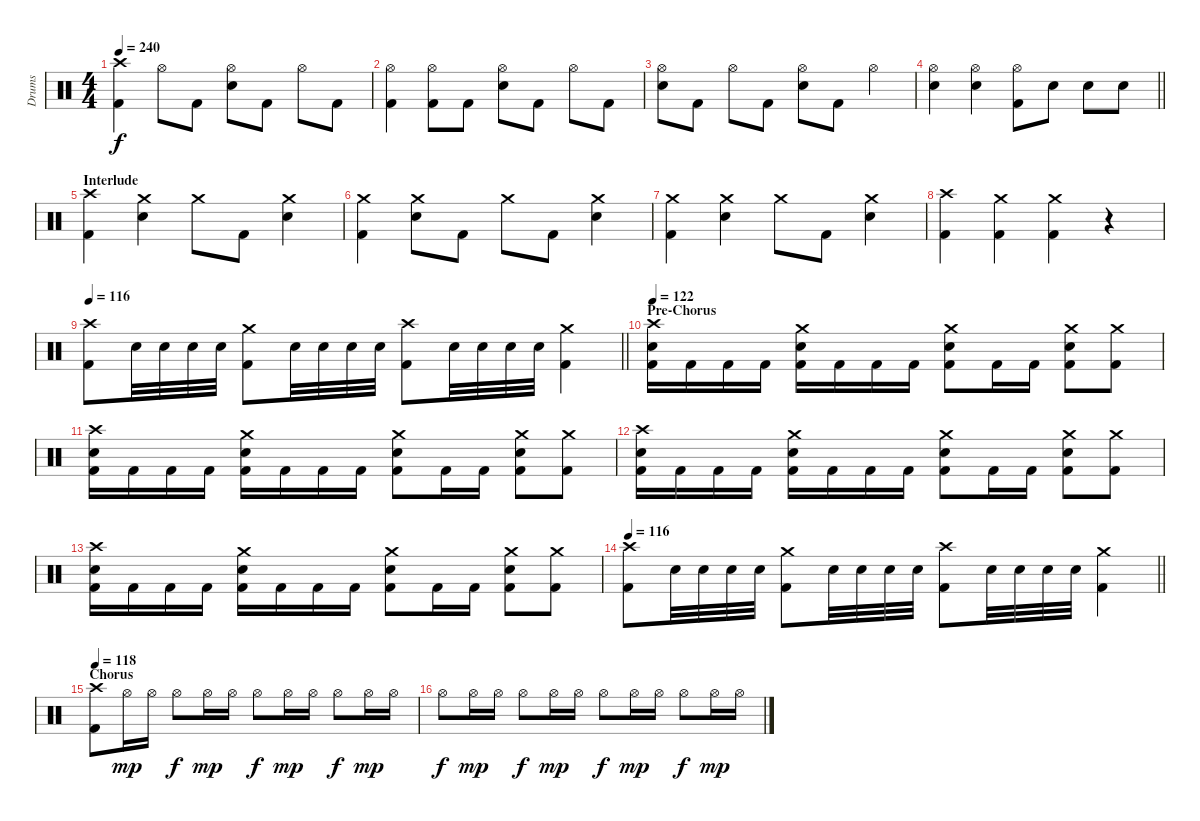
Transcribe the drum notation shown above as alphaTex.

\track ("Drums" "Drums") {instrument percussion}
\staff {score}
\articulation defaults
\ts (4 4)
\tempo 240
\clef neutral
\ks c
("Crash high (hit)" "Kick (hit) 2").4{dy f} "Hi-Hat (open)".8 "Kick (hit) 2".8 ("Hi-Hat (open)" "Snare (hit) 2").8 "Kick (hit) 2".8 "Hi-Hat (open)".8 "Kick (hit) 2".8 |
("Hi-Hat (open)" "Kick (hit) 2").4 ("Hi-Hat (open)" "Kick (hit) 2").8 "Kick (hit) 2".8 ("Hi-Hat (open)" "Snare (hit) 2").8 "Kick (hit) 2".8 "Hi-Hat (open)".8 "Kick (hit) 2".8 |
("Hi-Hat (open)" "Snare (hit) 2").8 "Kick (hit) 2".8 "Hi-Hat (open)".8 "Kick (hit) 2".8 ("Hi-Hat (open)" "Snare (hit) 2").8 "Kick (hit) 2".8 "Hi-Hat (open)".4 |
\barLineRight lightlight
("Hi-Hat (open)" "Snare (hit) 2").4 ("Hi-Hat (open)" "Snare (hit) 2").4 ("Hi-Hat (open)" "Kick (hit) 2").8 "Snare (hit) 2".8 "Snare (hit) 2".8 "Snare (hit) 2".8 |
\section ("" "Interlude")
("Crash high (hit)" "Kick (hit) 2").4 ("Crash medium (hit)" "Snare (hit) 2").4 "Crash medium (hit)".8 "Kick (hit) 2".8 ("Crash medium (hit)" "Snare (hit) 2").4 |
("Crash medium (hit)" "Kick (hit) 2").4 ("Crash medium (hit)" "Snare (hit) 2").8 "Kick (hit) 2".8 "Crash medium (hit)".8 "Kick (hit) 2".8 ("Crash medium (hit)" "Snare (hit) 2").4 |
("Crash medium (hit)" "Kick (hit) 2").4 ("Crash medium (hit)" "Snare (hit) 2").4 "Crash medium (hit)".8 "Kick (hit) 2".8 ("Crash medium (hit)" "Snare (hit) 2").4 |
("Crash high (hit)" "Kick (hit) 2").4 ("Crash medium (hit)" "Kick (hit) 2").4 ("Crash medium (hit)" "Kick (hit) 2").4 r.4 |
\tempo 116
\barLineRight lightlight
("Crash high (hit)" "Kick (hit) 2").8 "Snare (hit) 2".32 "Snare (hit) 2".32 "Snare (hit) 2".32 "Snare (hit) 2".32 ("Crash medium (hit)" "Kick (hit) 2").8 "Snare (hit) 2".32 "Snare (hit) 2".32 "Snare (hit) 2".32 "Snare (hit) 2".32 ("Crash high (hit)" "Kick (hit) 2").8 "Snare (hit) 2".32 "Snare (hit) 2".32 "Snare (hit) 2".32 "Snare (hit) 2".32 ("Crash medium (hit)" "Kick (hit) 2").4 |
\section ("" "Pre-Chorus")
\tempo 122
("Crash high (hit)" "Snare (hit) 2" "Kick (hit) 2").16 "Kick (hit) 2".16 "Kick (hit) 2".16 "Kick (hit) 2".16 ("Crash medium (hit)" "Snare (hit) 2" "Kick (hit) 2").16 "Kick (hit) 2".16 "Kick (hit) 2".16 "Kick (hit) 2".16 ("Crash medium (hit)" "Snare (hit) 2" "Kick (hit) 2").8 "Kick (hit) 2".16 "Kick (hit) 2".16 ("Crash medium (hit)" "Snare (hit) 2" "Kick (hit) 2").8 ("Crash medium (hit)" "Kick (hit) 2").8 |
("Crash high (hit)" "Snare (hit) 2" "Kick (hit) 2").16 "Kick (hit) 2".16 "Kick (hit) 2".16 "Kick (hit) 2".16 ("Crash medium (hit)" "Snare (hit) 2" "Kick (hit) 2").16 "Kick (hit) 2".16 "Kick (hit) 2".16 "Kick (hit) 2".16 ("Crash medium (hit)" "Snare (hit) 2" "Kick (hit) 2").8 "Kick (hit) 2".16 "Kick (hit) 2".16 ("Crash medium (hit)" "Snare (hit) 2" "Kick (hit) 2").8 ("Crash medium (hit)" "Kick (hit) 2").8 |
("Crash high (hit)" "Snare (hit) 2" "Kick (hit) 2").16 "Kick (hit) 2".16 "Kick (hit) 2".16 "Kick (hit) 2".16 ("Crash medium (hit)" "Snare (hit) 2" "Kick (hit) 2").16 "Kick (hit) 2".16 "Kick (hit) 2".16 "Kick (hit) 2".16 ("Crash medium (hit)" "Snare (hit) 2" "Kick (hit) 2").8 "Kick (hit) 2".16 "Kick (hit) 2".16 ("Crash medium (hit)" "Snare (hit) 2" "Kick (hit) 2").8 ("Crash medium (hit)" "Kick (hit) 2").8 |
("Crash high (hit)" "Snare (hit) 2" "Kick (hit) 2").16 "Kick (hit) 2".16 "Kick (hit) 2".16 "Kick (hit) 2".16 ("Crash medium (hit)" "Snare (hit) 2" "Kick (hit) 2").16 "Kick (hit) 2".16 "Kick (hit) 2".16 "Kick (hit) 2".16 ("Crash medium (hit)" "Snare (hit) 2" "Kick (hit) 2").8 "Kick (hit) 2".16 "Kick (hit) 2".16 ("Crash medium (hit)" "Snare (hit) 2" "Kick (hit) 2").8 ("Crash medium (hit)" "Kick (hit) 2").8 |
\tempo 116
\barLineRight lightlight
("Crash high (hit)" "Kick (hit) 2").8 "Snare (hit) 2".32 "Snare (hit) 2".32 "Snare (hit) 2".32 "Snare (hit) 2".32 ("Crash medium (hit)" "Kick (hit) 2").8 "Snare (hit) 2".32 "Snare (hit) 2".32 "Snare (hit) 2".32 "Snare (hit) 2".32 ("Crash high (hit)" "Kick (hit) 2").8 "Snare (hit) 2".32 "Snare (hit) 2".32 "Snare (hit) 2".32 "Snare (hit) 2".32 ("Crash medium (hit)" "Kick (hit) 2").4 |
\section ("" "Chorus")
\tempo 118
("Crash high (hit)" "Kick (hit) 2").8 "Hi-Hat (open)".16{dy mp} "Hi-Hat (open)".16 "Hi-Hat (open)".8{dy f} "Hi-Hat (open)".16{dy mp} "Hi-Hat (open)".16 "Hi-Hat (open)".8{dy f} "Hi-Hat (open)".16{dy mp} "Hi-Hat (open)".16 "Hi-Hat (open)".8{dy f} "Hi-Hat (open)".16{dy mp} "Hi-Hat (open)".16 |
"Hi-Hat (open)".8{dy f} "Hi-Hat (open)".16{dy mp} "Hi-Hat (open)".16 "Hi-Hat (open)".8{dy f} "Hi-Hat (open)".16{dy mp} "Hi-Hat (open)".16 "Hi-Hat (open)".8{dy f} "Hi-Hat (open)".16{dy mp} "Hi-Hat (open)".16 "Hi-Hat (open)".8{dy f} "Hi-Hat (open)".16{dy mp} "Hi-Hat (open)".16
